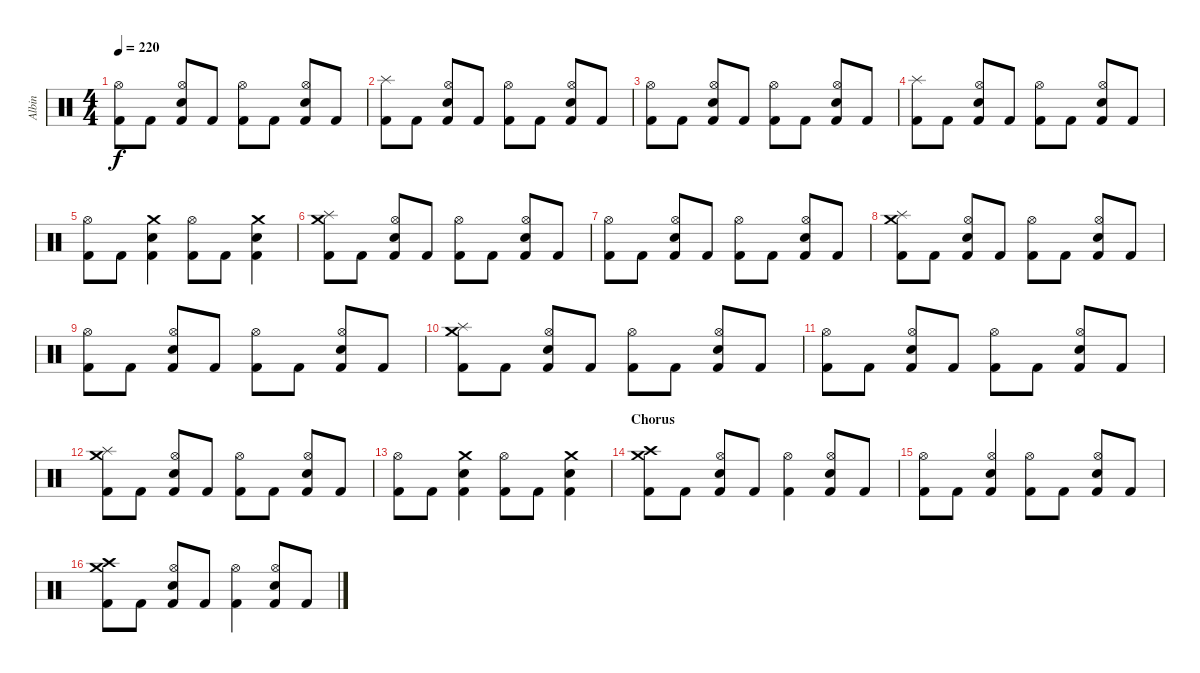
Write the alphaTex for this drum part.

\track ("Albin" "Albin") {instrument percussion}
\staff {score}
\articulation defaults
\ts (4 4)
\tempo 220
\clef neutral
\ks c
("Kick (hit) 2" "Hi-Hat (open)").8{dy f} "Kick (hit) 2".8 ("Kick (hit) 2" "Electric Snare (hit)" "Hi-Hat (open)").8 "Kick (hit) 2".8 ("Kick (hit) 2" "Hi-Hat (open)").8 "Kick (hit) 2".8 ("Kick (hit) 2" "Electric Snare (hit)" "Hi-Hat (open)").8 "Kick (hit) 2".8 |
("Kick (hit) 2" "Splash (hit)").8 "Kick (hit) 2".8 ("Kick (hit) 2" "Electric Snare (hit)" "Hi-Hat (open)").8 "Kick (hit) 2".8 ("Kick (hit) 2" "Hi-Hat (open)").8 "Kick (hit) 2".8 ("Kick (hit) 2" "Electric Snare (hit)" "Hi-Hat (open)").8 "Kick (hit) 2".8 |
("Kick (hit) 2" "Hi-Hat (open)").8 "Kick (hit) 2".8 ("Kick (hit) 2" "Electric Snare (hit)" "Hi-Hat (open)").8 "Kick (hit) 2".8 ("Kick (hit) 2" "Hi-Hat (open)").8 "Kick (hit) 2".8 ("Kick (hit) 2" "Electric Snare (hit)" "Hi-Hat (open)").8 "Kick (hit) 2".8 |
("Kick (hit) 2" "Splash (hit)").8 "Kick (hit) 2".8 ("Kick (hit) 2" "Electric Snare (hit)" "Hi-Hat (open)").8 "Kick (hit) 2".8 ("Kick (hit) 2" "Hi-Hat (open)").8 "Kick (hit) 2".8 ("Kick (hit) 2" "Electric Snare (hit)" "Hi-Hat (open)").8 "Kick (hit) 2".8 |
("Kick (hit) 2" "Hi-Hat (open)").8 "Kick (hit) 2".8 ("Kick (hit) 2" "Electric Snare (hit)" "Crash medium (hit)").4 ("Kick (hit) 2" "Hi-Hat (open)").8 "Kick (hit) 2".8 ("Kick (hit) 2" "Electric Snare (hit)" "Crash medium (hit)").4 |
("Kick (hit) 2" "Splash (hit)" "Crash medium (hit)").8 "Kick (hit) 2".8 ("Kick (hit) 2" "Electric Snare (hit)" "Hi-Hat (open)").8 "Kick (hit) 2".8 ("Kick (hit) 2" "Hi-Hat (open)").8 "Kick (hit) 2".8 ("Kick (hit) 2" "Electric Snare (hit)" "Hi-Hat (open)").8 "Kick (hit) 2".8 |
("Kick (hit) 2" "Hi-Hat (open)").8 "Kick (hit) 2".8 ("Kick (hit) 2" "Electric Snare (hit)" "Hi-Hat (open)").8 "Kick (hit) 2".8 ("Kick (hit) 2" "Hi-Hat (open)").8 "Kick (hit) 2".8 ("Kick (hit) 2" "Electric Snare (hit)" "Hi-Hat (open)").8 "Kick (hit) 2".8 |
("Kick (hit) 2" "Splash (hit)" "Crash medium (hit)").8 "Kick (hit) 2".8 ("Kick (hit) 2" "Electric Snare (hit)" "Hi-Hat (open)").8 "Kick (hit) 2".8 ("Kick (hit) 2" "Hi-Hat (open)").8 "Kick (hit) 2".8 ("Kick (hit) 2" "Electric Snare (hit)" "Hi-Hat (open)").8 "Kick (hit) 2".8 |
("Kick (hit) 2" "Hi-Hat (open)").8 "Kick (hit) 2".8 ("Kick (hit) 2" "Electric Snare (hit)" "Hi-Hat (open)").8 "Kick (hit) 2".8 ("Kick (hit) 2" "Hi-Hat (open)").8 "Kick (hit) 2".8 ("Kick (hit) 2" "Electric Snare (hit)" "Hi-Hat (open)").8 "Kick (hit) 2".8 |
("Kick (hit) 2" "Splash (hit)" "Crash medium (hit)").8 "Kick (hit) 2".8 ("Kick (hit) 2" "Electric Snare (hit)" "Hi-Hat (open)").8 "Kick (hit) 2".8 ("Kick (hit) 2" "Hi-Hat (open)").8 "Kick (hit) 2".8 ("Kick (hit) 2" "Electric Snare (hit)" "Hi-Hat (open)").8 "Kick (hit) 2".8 |
("Kick (hit) 2" "Hi-Hat (open)").8 "Kick (hit) 2".8 ("Kick (hit) 2" "Electric Snare (hit)" "Hi-Hat (open)").8 "Kick (hit) 2".8 ("Kick (hit) 2" "Hi-Hat (open)").8 "Kick (hit) 2".8 ("Kick (hit) 2" "Electric Snare (hit)" "Hi-Hat (open)").8 "Kick (hit) 2".8 |
("Kick (hit) 2" "Splash (hit)" "Crash medium (hit)").8 "Kick (hit) 2".8 ("Kick (hit) 2" "Electric Snare (hit)" "Hi-Hat (open)").8 "Kick (hit) 2".8 ("Kick (hit) 2" "Hi-Hat (open)").8 "Kick (hit) 2".8 ("Kick (hit) 2" "Electric Snare (hit)" "Hi-Hat (open)").8 "Kick (hit) 2".8 |
("Kick (hit) 2" "Hi-Hat (open)").8 "Kick (hit) 2".8 ("Kick (hit) 2" "Electric Snare (hit)" "Crash medium (hit)").4 ("Kick (hit) 2" "Hi-Hat (open)").8 "Kick (hit) 2".8 ("Kick (hit) 2" "Electric Snare (hit)" "Crash medium (hit)").4 |
\section ("" "Chorus")
("Kick (hit) 2" "Crash high (hit)" "Crash medium (hit)").8 "Kick (hit) 2".8 ("Kick (hit) 2" "Electric Snare (hit)" "Hi-Hat (open)").8 "Kick (hit) 2".8 ("Kick (hit) 2" "Hi-Hat (open)").4 ("Kick (hit) 2" "Electric Snare (hit)" "Hi-Hat (open)").8 "Kick (hit) 2".8 |
("Kick (hit) 2" "Hi-Hat (open)").8 "Kick (hit) 2".8 ("Kick (hit) 2" "Electric Snare (hit)" "Hi-Hat (open)").4 ("Kick (hit) 2" "Hi-Hat (open)").8 "Kick (hit) 2".8 ("Kick (hit) 2" "Electric Snare (hit)" "Hi-Hat (open)").8 "Kick (hit) 2".8 |
("Kick (hit) 2" "Crash high (hit)" "Crash medium (hit)").8 "Kick (hit) 2".8 ("Kick (hit) 2" "Electric Snare (hit)" "Hi-Hat (open)").8 "Kick (hit) 2".8 ("Kick (hit) 2" "Hi-Hat (open)").4 ("Kick (hit) 2" "Electric Snare (hit)" "Hi-Hat (open)").8 "Kick (hit) 2".8
